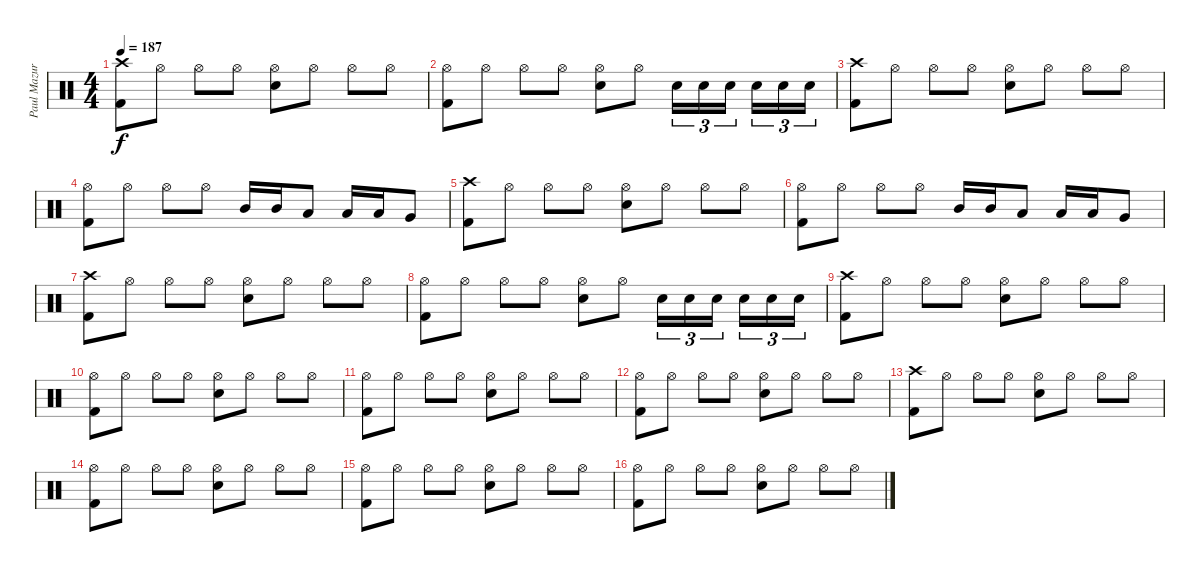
\track ("Paul Mazurkiewicz - Drums" "Paul Mazur") {instrument percussion}
\staff {score}
\articulation defaults
\ts (4 4)
\tempo 187
\clef neutral
\ks c
("Crash high (hit)" "Kick (hit) 2").8{dy f} "Hi-Hat (open)".8 "Hi-Hat (open)".8 "Hi-Hat (open)".8 ("Hi-Hat (open)" "Snare (hit) 2").8 "Hi-Hat (open)".8 "Hi-Hat (open)".8 "Hi-Hat (open)".8 |
("Hi-Hat (open)" "Kick (hit) 2").8 "Hi-Hat (open)".8 "Hi-Hat (open)".8 "Hi-Hat (open)".8 ("Hi-Hat (open)" "Snare (hit) 2").8 "Hi-Hat (open)".8 "Snare (hit) 2".16{tu (3 2)} "Snare (hit) 2".16{tu (3 2)} "Snare (hit) 2".16{tu (3 2)} "Snare (hit) 2".16{tu (3 2)} "Snare (hit) 2".16{tu (3 2)} "Snare (hit) 2".16{tu (3 2)} |
("Crash high (hit)" "Kick (hit) 2").8 "Hi-Hat (open)".8 "Hi-Hat (open)".8 "Hi-Hat (open)".8 ("Hi-Hat (open)" "Snare (hit) 2").8 "Hi-Hat (open)".8 "Hi-Hat (open)".8 "Hi-Hat (open)".8 |
("Hi-Hat (open)" "Kick (hit) 2").8 "Hi-Hat (open)".8 "Hi-Hat (open)".8 "Hi-Hat (open)".8 "Mid Tom (hit)".16 "Mid Tom (hit)".16 "Low Tom (hit)".8 "Low Tom (hit)".16 "Low Tom (hit)".16 "Very Low Tom (hit)".8 |
("Crash high (hit)" "Kick (hit) 2").8 "Hi-Hat (open)".8 "Hi-Hat (open)".8 "Hi-Hat (open)".8 ("Hi-Hat (open)" "Snare (hit) 2").8 "Hi-Hat (open)".8 "Hi-Hat (open)".8 "Hi-Hat (open)".8 |
("Hi-Hat (open)" "Kick (hit) 2").8 "Hi-Hat (open)".8 "Hi-Hat (open)".8 "Hi-Hat (open)".8 "Mid Tom (hit)".16 "Mid Tom (hit)".16 "Low Tom (hit)".8 "Low Tom (hit)".16 "Low Tom (hit)".16 "Very Low Tom (hit)".8 |
("Crash high (hit)" "Kick (hit) 2").8 "Hi-Hat (open)".8 "Hi-Hat (open)".8 "Hi-Hat (open)".8 ("Hi-Hat (open)" "Snare (hit) 2").8 "Hi-Hat (open)".8 "Hi-Hat (open)".8 "Hi-Hat (open)".8 |
("Hi-Hat (open)" "Kick (hit) 2").8 "Hi-Hat (open)".8 "Hi-Hat (open)".8 "Hi-Hat (open)".8 ("Hi-Hat (open)" "Snare (hit) 2").8 "Hi-Hat (open)".8 "Snare (hit) 2".16{tu (3 2)} "Snare (hit) 2".16{tu (3 2)} "Snare (hit) 2".16{tu (3 2)} "Snare (hit) 2".16{tu (3 2)} "Snare (hit) 2".16{tu (3 2)} "Snare (hit) 2".16{tu (3 2)} |
("Crash high (hit)" "Kick (hit) 2").8 "Hi-Hat (open)".8 "Hi-Hat (open)".8 "Hi-Hat (open)".8 ("Hi-Hat (open)" "Snare (hit) 2").8 "Hi-Hat (open)".8 "Hi-Hat (open)".8 "Hi-Hat (open)".8 |
("Hi-Hat (open)" "Kick (hit) 2").8 "Hi-Hat (open)".8 "Hi-Hat (open)".8 "Hi-Hat (open)".8 ("Hi-Hat (open)" "Snare (hit) 2").8 "Hi-Hat (open)".8 "Hi-Hat (open)".8 "Hi-Hat (open)".8 |
("Hi-Hat (open)" "Kick (hit) 2").8 "Hi-Hat (open)".8 "Hi-Hat (open)".8 "Hi-Hat (open)".8 ("Hi-Hat (open)" "Snare (hit) 2").8 "Hi-Hat (open)".8 "Hi-Hat (open)".8 "Hi-Hat (open)".8 |
("Hi-Hat (open)" "Kick (hit) 2").8 "Hi-Hat (open)".8 "Hi-Hat (open)".8 "Hi-Hat (open)".8 ("Hi-Hat (open)" "Snare (hit) 2").8 "Hi-Hat (open)".8 "Hi-Hat (open)".8 "Hi-Hat (open)".8 |
("Crash high (hit)" "Kick (hit) 2").8 "Hi-Hat (open)".8 "Hi-Hat (open)".8 "Hi-Hat (open)".8 ("Hi-Hat (open)" "Snare (hit) 2").8 "Hi-Hat (open)".8 "Hi-Hat (open)".8 "Hi-Hat (open)".8 |
("Hi-Hat (open)" "Kick (hit) 2").8 "Hi-Hat (open)".8 "Hi-Hat (open)".8 "Hi-Hat (open)".8 ("Hi-Hat (open)" "Snare (hit) 2").8 "Hi-Hat (open)".8 "Hi-Hat (open)".8 "Hi-Hat (open)".8 |
("Hi-Hat (open)" "Kick (hit) 2").8 "Hi-Hat (open)".8 "Hi-Hat (open)".8 "Hi-Hat (open)".8 ("Hi-Hat (open)" "Snare (hit) 2").8 "Hi-Hat (open)".8 "Hi-Hat (open)".8 "Hi-Hat (open)".8 |
("Hi-Hat (open)" "Kick (hit) 2").8 "Hi-Hat (open)".8 "Hi-Hat (open)".8 "Hi-Hat (open)".8 ("Hi-Hat (open)" "Snare (hit) 2").8 "Hi-Hat (open)".8 "Hi-Hat (open)".8 "Hi-Hat (open)".8
